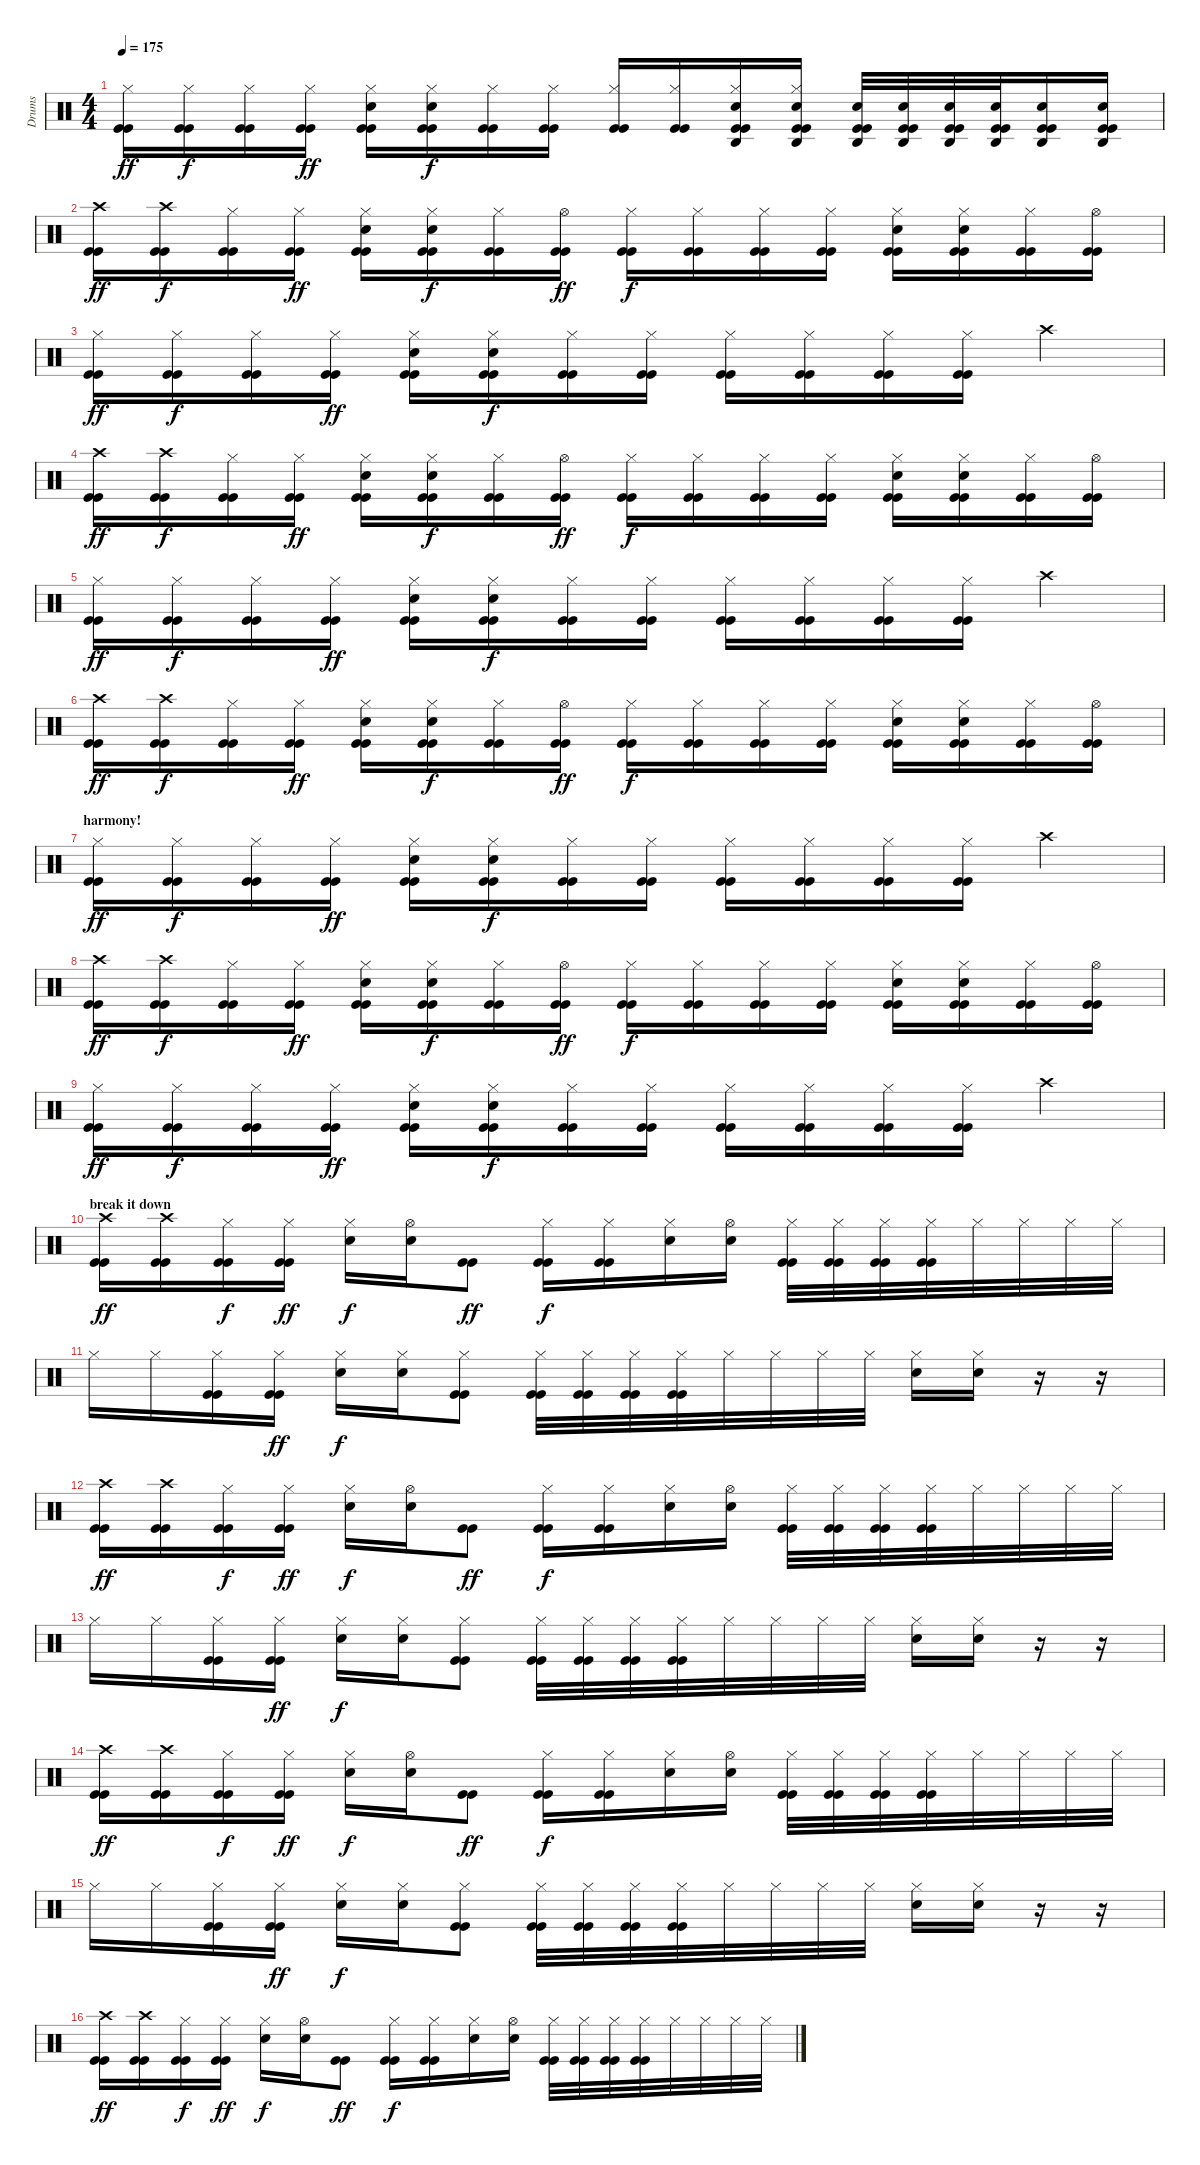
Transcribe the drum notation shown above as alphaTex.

\track ("Drums" "Drums") {instrument percussion}
\staff {score}
\articulation defaults
\ts (4 4)
\tempo 175
\clef neutral
\ks c
("Hi-Hat (closed)" "Kick (hit)" "Kick (hit)").16{dy ff} ("Hi-Hat (closed)" "Kick (hit)" "Kick (hit)").16{dy f} ("Hi-Hat (closed)" "Kick (hit)" "Kick (hit)").16 ("Hi-Hat (closed)" "Kick (hit)" "Kick (hit)").16{dy ff} ("Electric Snare (hit)" "Hi-Hat (closed)" "Kick (hit)" "Kick (hit)").16 ("Electric Snare (hit)" "Hi-Hat (closed)" "Kick (hit)" "Kick (hit)").16{dy f} ("Hi-Hat (closed)" "Kick (hit)" "Kick (hit)").16 ("Hi-Hat (closed)" "Kick (hit)" "Kick (hit)").16 ("Hi-Hat (closed)" "Kick (hit)" "Kick (hit)").16 ("Hi-Hat (closed)" "Kick (hit)" "Kick (hit)").16 ("Agogo high (hit)" "Electric Snare (hit)" "Hi-Hat (closed)" "Kick (hit)" "Kick (hit)").16 ("Agogo high (hit)" "Electric Snare (hit)" "Hi-Hat (closed)" "Kick (hit)" "Kick (hit)").16 ("Agogo high (hit)" "Electric Snare (hit)" "Kick (hit)" "Kick (hit)").32 ("Agogo high (hit)" "Electric Snare (hit)" "Kick (hit)" "Kick (hit)").32 ("Agogo high (hit)" "Electric Snare (hit)" "Kick (hit)" "Kick (hit)").32 ("Agogo high (hit)" "Electric Snare (hit)" "Kick (hit)" "Kick (hit)").32 ("Agogo high (hit)" "Electric Snare (hit)" "Kick (hit)" "Kick (hit)").16 ("Agogo high (hit)" "Electric Snare (hit)" "Kick (hit)" "Kick (hit)").16 |
("Crash high (hit)" "Kick (hit)" "Kick (hit)").16{dy ff} ("Crash high (hit)" "Kick (hit)" "Kick (hit)").16{dy f} ("Hi-Hat (closed)" "Kick (hit)" "Kick (hit)").16 ("Hi-Hat (closed)" "Kick (hit)" "Kick (hit)").16{dy ff} ("Electric Snare (hit)" "Hi-Hat (closed)" "Kick (hit)" "Kick (hit)").16 ("Electric Snare (hit)" "Hi-Hat (closed)" "Kick (hit)" "Kick (hit)").16{dy f} ("Hi-Hat (closed)" "Kick (hit)" "Kick (hit)").16 ("Hi-Hat (open)" "Kick (hit)" "Kick (hit)").16{dy ff} ("Hi-Hat (closed)" "Kick (hit)" "Kick (hit)").16{dy f} ("Hi-Hat (closed)" "Kick (hit)" "Kick (hit)").16 ("Hi-Hat (closed)" "Kick (hit)" "Kick (hit)").16 ("Hi-Hat (closed)" "Kick (hit)" "Kick (hit)").16 ("Electric Snare (hit)" "Hi-Hat (closed)" "Kick (hit)" "Kick (hit)").16 ("Electric Snare (hit)" "Hi-Hat (closed)" "Kick (hit)" "Kick (hit)").16 ("Hi-Hat (closed)" "Kick (hit)" "Kick (hit)").16 ("Hi-Hat (open)" "Kick (hit)" "Kick (hit)").16 |
("Hi-Hat (closed)" "Kick (hit)" "Kick (hit)").16{dy ff} ("Hi-Hat (closed)" "Kick (hit)" "Kick (hit)").16{dy f} ("Hi-Hat (closed)" "Kick (hit)" "Kick (hit)").16 ("Hi-Hat (closed)" "Kick (hit)" "Kick (hit)").16{dy ff} ("Electric Snare (hit)" "Hi-Hat (closed)" "Kick (hit)" "Kick (hit)").16 ("Electric Snare (hit)" "Hi-Hat (closed)" "Kick (hit)" "Kick (hit)").16{dy f} ("Hi-Hat (closed)" "Kick (hit)" "Kick (hit)").16 ("Hi-Hat (closed)" "Kick (hit)" "Kick (hit)").16 ("Hi-Hat (closed)" "Kick (hit)" "Kick (hit)").16 ("Hi-Hat (closed)" "Kick (hit)" "Kick (hit)").16 ("Hi-Hat (closed)" "Kick (hit)" "Kick (hit)").16 ("Hi-Hat (closed)" "Kick (hit)" "Kick (hit)").16 "Crash high (hit)".4 |
("Crash high (hit)" "Kick (hit)" "Kick (hit)").16{dy ff} ("Crash high (hit)" "Kick (hit)" "Kick (hit)").16{dy f} ("Hi-Hat (closed)" "Kick (hit)" "Kick (hit)").16 ("Hi-Hat (closed)" "Kick (hit)" "Kick (hit)").16{dy ff} ("Electric Snare (hit)" "Hi-Hat (closed)" "Kick (hit)" "Kick (hit)").16 ("Electric Snare (hit)" "Hi-Hat (closed)" "Kick (hit)" "Kick (hit)").16{dy f} ("Hi-Hat (closed)" "Kick (hit)" "Kick (hit)").16 ("Hi-Hat (open)" "Kick (hit)" "Kick (hit)").16{dy ff} ("Hi-Hat (closed)" "Kick (hit)" "Kick (hit)").16{dy f} ("Hi-Hat (closed)" "Kick (hit)" "Kick (hit)").16 ("Hi-Hat (closed)" "Kick (hit)" "Kick (hit)").16 ("Hi-Hat (closed)" "Kick (hit)" "Kick (hit)").16 ("Electric Snare (hit)" "Hi-Hat (closed)" "Kick (hit)" "Kick (hit)").16 ("Electric Snare (hit)" "Hi-Hat (closed)" "Kick (hit)" "Kick (hit)").16 ("Hi-Hat (closed)" "Kick (hit)" "Kick (hit)").16 ("Hi-Hat (open)" "Kick (hit)" "Kick (hit)").16 |
("Hi-Hat (closed)" "Kick (hit)" "Kick (hit)").16{dy ff} ("Hi-Hat (closed)" "Kick (hit)" "Kick (hit)").16{dy f} ("Hi-Hat (closed)" "Kick (hit)" "Kick (hit)").16 ("Hi-Hat (closed)" "Kick (hit)" "Kick (hit)").16{dy ff} ("Electric Snare (hit)" "Hi-Hat (closed)" "Kick (hit)" "Kick (hit)").16 ("Electric Snare (hit)" "Hi-Hat (closed)" "Kick (hit)" "Kick (hit)").16{dy f} ("Hi-Hat (closed)" "Kick (hit)" "Kick (hit)").16 ("Hi-Hat (closed)" "Kick (hit)" "Kick (hit)").16 ("Hi-Hat (closed)" "Kick (hit)" "Kick (hit)").16 ("Hi-Hat (closed)" "Kick (hit)" "Kick (hit)").16 ("Hi-Hat (closed)" "Kick (hit)" "Kick (hit)").16 ("Hi-Hat (closed)" "Kick (hit)" "Kick (hit)").16 "Crash high (hit)".4 |
("Crash high (hit)" "Kick (hit)" "Kick (hit)").16{dy ff} ("Crash high (hit)" "Kick (hit)" "Kick (hit)").16{dy f} ("Hi-Hat (closed)" "Kick (hit)" "Kick (hit)").16 ("Hi-Hat (closed)" "Kick (hit)" "Kick (hit)").16{dy ff} ("Electric Snare (hit)" "Hi-Hat (closed)" "Kick (hit)" "Kick (hit)").16 ("Electric Snare (hit)" "Hi-Hat (closed)" "Kick (hit)" "Kick (hit)").16{dy f} ("Hi-Hat (closed)" "Kick (hit)" "Kick (hit)").16 ("Hi-Hat (open)" "Kick (hit)" "Kick (hit)").16{dy ff} ("Hi-Hat (closed)" "Kick (hit)" "Kick (hit)").16{dy f} ("Hi-Hat (closed)" "Kick (hit)" "Kick (hit)").16 ("Hi-Hat (closed)" "Kick (hit)" "Kick (hit)").16 ("Hi-Hat (closed)" "Kick (hit)" "Kick (hit)").16 ("Electric Snare (hit)" "Hi-Hat (closed)" "Kick (hit)" "Kick (hit)").16 ("Electric Snare (hit)" "Hi-Hat (closed)" "Kick (hit)" "Kick (hit)").16 ("Hi-Hat (closed)" "Kick (hit)" "Kick (hit)").16 ("Hi-Hat (open)" "Kick (hit)" "Kick (hit)").16 |
\section ("" "harmony!")
("Hi-Hat (closed)" "Kick (hit)" "Kick (hit)").16{dy ff} ("Hi-Hat (closed)" "Kick (hit)" "Kick (hit)").16{dy f} ("Hi-Hat (closed)" "Kick (hit)" "Kick (hit)").16 ("Hi-Hat (closed)" "Kick (hit)" "Kick (hit)").16{dy ff} ("Electric Snare (hit)" "Hi-Hat (closed)" "Kick (hit)" "Kick (hit)").16 ("Electric Snare (hit)" "Hi-Hat (closed)" "Kick (hit)" "Kick (hit)").16{dy f} ("Hi-Hat (closed)" "Kick (hit)" "Kick (hit)").16 ("Hi-Hat (closed)" "Kick (hit)" "Kick (hit)").16 ("Hi-Hat (closed)" "Kick (hit)" "Kick (hit)").16 ("Hi-Hat (closed)" "Kick (hit)" "Kick (hit)").16 ("Hi-Hat (closed)" "Kick (hit)" "Kick (hit)").16 ("Hi-Hat (closed)" "Kick (hit)" "Kick (hit)").16 "Crash high (hit)".4 |
("Crash high (hit)" "Kick (hit)" "Kick (hit)").16{dy ff} ("Crash high (hit)" "Kick (hit)" "Kick (hit)").16{dy f} ("Hi-Hat (closed)" "Kick (hit)" "Kick (hit)").16 ("Hi-Hat (closed)" "Kick (hit)" "Kick (hit)").16{dy ff} ("Electric Snare (hit)" "Hi-Hat (closed)" "Kick (hit)" "Kick (hit)").16 ("Electric Snare (hit)" "Hi-Hat (closed)" "Kick (hit)" "Kick (hit)").16{dy f} ("Hi-Hat (closed)" "Kick (hit)" "Kick (hit)").16 ("Hi-Hat (open)" "Kick (hit)" "Kick (hit)").16{dy ff} ("Hi-Hat (closed)" "Kick (hit)" "Kick (hit)").16{dy f} ("Hi-Hat (closed)" "Kick (hit)" "Kick (hit)").16 ("Hi-Hat (closed)" "Kick (hit)" "Kick (hit)").16 ("Hi-Hat (closed)" "Kick (hit)" "Kick (hit)").16 ("Electric Snare (hit)" "Hi-Hat (closed)" "Kick (hit)" "Kick (hit)").16 ("Electric Snare (hit)" "Hi-Hat (closed)" "Kick (hit)" "Kick (hit)").16 ("Hi-Hat (closed)" "Kick (hit)" "Kick (hit)").16 ("Hi-Hat (open)" "Kick (hit)" "Kick (hit)").16 |
("Hi-Hat (closed)" "Kick (hit)" "Kick (hit)").16{dy ff} ("Hi-Hat (closed)" "Kick (hit)" "Kick (hit)").16{dy f} ("Hi-Hat (closed)" "Kick (hit)" "Kick (hit)").16 ("Hi-Hat (closed)" "Kick (hit)" "Kick (hit)").16{dy ff} ("Electric Snare (hit)" "Hi-Hat (closed)" "Kick (hit)" "Kick (hit)").16 ("Electric Snare (hit)" "Hi-Hat (closed)" "Kick (hit)" "Kick (hit)").16{dy f} ("Hi-Hat (closed)" "Kick (hit)" "Kick (hit)").16 ("Hi-Hat (closed)" "Kick (hit)" "Kick (hit)").16 ("Hi-Hat (closed)" "Kick (hit)" "Kick (hit)").16 ("Hi-Hat (closed)" "Kick (hit)" "Kick (hit)").16 ("Hi-Hat (closed)" "Kick (hit)" "Kick (hit)").16 ("Hi-Hat (closed)" "Kick (hit)" "Kick (hit)").16 "Crash high (hit)".4 |
\section ("" "break it down")
("Crash high (hit)" "Kick (hit)" "Kick (hit)").16{dy ff} ("Crash high (hit)" "Kick (hit)" "Kick (hit)").16 ("Hi-Hat (closed)" "Kick (hit)" "Kick (hit)").16{dy f} ("Hi-Hat (closed)" "Kick (hit)" "Kick (hit)").16{dy ff} ("Electric Snare (hit)" "Hi-Hat (closed)").16{dy f} ("Electric Snare (hit)" "Hi-Hat (open)").16 ("Kick (hit)" "Kick (hit)").8{dy ff} ("Hi-Hat (closed)" "Kick (hit)" "Kick (hit)").16{dy f} ("Hi-Hat (closed)" "Kick (hit)" "Kick (hit)").16 ("Electric Snare (hit)" "Hi-Hat (closed)").16 ("Electric Snare (hit)" "Hi-Hat (open)").16 ("Hi-Hat (closed)" "Kick (hit)" "Kick (hit)").32 ("Hi-Hat (closed)" "Kick (hit)" "Kick (hit)").32 ("Hi-Hat (closed)" "Kick (hit)" "Kick (hit)").32 ("Hi-Hat (closed)" "Kick (hit)" "Kick (hit)").32 "Hi-Hat (closed)".32 "Hi-Hat (closed)".32 "Hi-Hat (closed)".32 "Hi-Hat (closed)".32 |
"Hi-Hat (closed)".16 "Hi-Hat (closed)".16 ("Hi-Hat (closed)" "Kick (hit)" "Kick (hit)").16 ("Hi-Hat (closed)" "Kick (hit)" "Kick (hit)").16{dy ff} ("Electric Snare (hit)" "Hi-Hat (closed)").16{dy f} ("Electric Snare (hit)" "Hi-Hat (closed)").16 ("Hi-Hat (closed)" "Kick (hit)" "Kick (hit)").8 ("Hi-Hat (closed)" "Kick (hit)" "Kick (hit)").32 ("Hi-Hat (closed)" "Kick (hit)" "Kick (hit)").32 ("Hi-Hat (closed)" "Kick (hit)" "Kick (hit)").32 ("Hi-Hat (closed)" "Kick (hit)" "Kick (hit)").32 "Hi-Hat (closed)".32 "Hi-Hat (closed)".32 "Hi-Hat (closed)".32 "Hi-Hat (closed)".32 ("Electric Snare (hit)" "Hi-Hat (closed)").16 ("Electric Snare (hit)" "Hi-Hat (closed)").16 r.16 r.16 |
("Crash high (hit)" "Kick (hit)" "Kick (hit)").16{dy ff} ("Crash high (hit)" "Kick (hit)" "Kick (hit)").16 ("Hi-Hat (closed)" "Kick (hit)" "Kick (hit)").16{dy f} ("Hi-Hat (closed)" "Kick (hit)" "Kick (hit)").16{dy ff} ("Electric Snare (hit)" "Hi-Hat (closed)").16{dy f} ("Electric Snare (hit)" "Hi-Hat (open)").16 ("Kick (hit)" "Kick (hit)").8{dy ff} ("Hi-Hat (closed)" "Kick (hit)" "Kick (hit)").16{dy f} ("Hi-Hat (closed)" "Kick (hit)" "Kick (hit)").16 ("Electric Snare (hit)" "Hi-Hat (closed)").16 ("Electric Snare (hit)" "Hi-Hat (open)").16 ("Hi-Hat (closed)" "Kick (hit)" "Kick (hit)").32 ("Hi-Hat (closed)" "Kick (hit)" "Kick (hit)").32 ("Hi-Hat (closed)" "Kick (hit)" "Kick (hit)").32 ("Hi-Hat (closed)" "Kick (hit)" "Kick (hit)").32 "Hi-Hat (closed)".32 "Hi-Hat (closed)".32 "Hi-Hat (closed)".32 "Hi-Hat (closed)".32 |
"Hi-Hat (closed)".16 "Hi-Hat (closed)".16 ("Hi-Hat (closed)" "Kick (hit)" "Kick (hit)").16 ("Hi-Hat (closed)" "Kick (hit)" "Kick (hit)").16{dy ff} ("Electric Snare (hit)" "Hi-Hat (closed)").16{dy f} ("Electric Snare (hit)" "Hi-Hat (closed)").16 ("Hi-Hat (closed)" "Kick (hit)" "Kick (hit)").8 ("Hi-Hat (closed)" "Kick (hit)" "Kick (hit)").32 ("Hi-Hat (closed)" "Kick (hit)" "Kick (hit)").32 ("Hi-Hat (closed)" "Kick (hit)" "Kick (hit)").32 ("Hi-Hat (closed)" "Kick (hit)" "Kick (hit)").32 "Hi-Hat (closed)".32 "Hi-Hat (closed)".32 "Hi-Hat (closed)".32 "Hi-Hat (closed)".32 ("Electric Snare (hit)" "Hi-Hat (closed)").16 ("Electric Snare (hit)" "Hi-Hat (closed)").16 r.16 r.16 |
("Crash high (hit)" "Kick (hit)" "Kick (hit)").16{dy ff} ("Crash high (hit)" "Kick (hit)" "Kick (hit)").16 ("Hi-Hat (closed)" "Kick (hit)" "Kick (hit)").16{dy f} ("Hi-Hat (closed)" "Kick (hit)" "Kick (hit)").16{dy ff} ("Electric Snare (hit)" "Hi-Hat (closed)").16{dy f} ("Electric Snare (hit)" "Hi-Hat (open)").16 ("Kick (hit)" "Kick (hit)").8{dy ff} ("Hi-Hat (closed)" "Kick (hit)" "Kick (hit)").16{dy f} ("Hi-Hat (closed)" "Kick (hit)" "Kick (hit)").16 ("Electric Snare (hit)" "Hi-Hat (closed)").16 ("Electric Snare (hit)" "Hi-Hat (open)").16 ("Hi-Hat (closed)" "Kick (hit)" "Kick (hit)").32 ("Hi-Hat (closed)" "Kick (hit)" "Kick (hit)").32 ("Hi-Hat (closed)" "Kick (hit)" "Kick (hit)").32 ("Hi-Hat (closed)" "Kick (hit)" "Kick (hit)").32 "Hi-Hat (closed)".32 "Hi-Hat (closed)".32 "Hi-Hat (closed)".32 "Hi-Hat (closed)".32 |
"Hi-Hat (closed)".16 "Hi-Hat (closed)".16 ("Hi-Hat (closed)" "Kick (hit)" "Kick (hit)").16 ("Hi-Hat (closed)" "Kick (hit)" "Kick (hit)").16{dy ff} ("Electric Snare (hit)" "Hi-Hat (closed)").16{dy f} ("Electric Snare (hit)" "Hi-Hat (closed)").16 ("Hi-Hat (closed)" "Kick (hit)" "Kick (hit)").8 ("Hi-Hat (closed)" "Kick (hit)" "Kick (hit)").32 ("Hi-Hat (closed)" "Kick (hit)" "Kick (hit)").32 ("Hi-Hat (closed)" "Kick (hit)" "Kick (hit)").32 ("Hi-Hat (closed)" "Kick (hit)" "Kick (hit)").32 "Hi-Hat (closed)".32 "Hi-Hat (closed)".32 "Hi-Hat (closed)".32 "Hi-Hat (closed)".32 ("Electric Snare (hit)" "Hi-Hat (closed)").16 ("Electric Snare (hit)" "Hi-Hat (closed)").16 r.16 r.16 |
("Crash high (hit)" "Kick (hit)" "Kick (hit)").16{dy ff} ("Crash high (hit)" "Kick (hit)" "Kick (hit)").16 ("Hi-Hat (closed)" "Kick (hit)" "Kick (hit)").16{dy f} ("Hi-Hat (closed)" "Kick (hit)" "Kick (hit)").16{dy ff} ("Electric Snare (hit)" "Hi-Hat (closed)").16{dy f} ("Electric Snare (hit)" "Hi-Hat (open)").16 ("Kick (hit)" "Kick (hit)").8{dy ff} ("Hi-Hat (closed)" "Kick (hit)" "Kick (hit)").16{dy f} ("Hi-Hat (closed)" "Kick (hit)" "Kick (hit)").16 ("Electric Snare (hit)" "Hi-Hat (closed)").16 ("Electric Snare (hit)" "Hi-Hat (open)").16 ("Hi-Hat (closed)" "Kick (hit)" "Kick (hit)").32 ("Hi-Hat (closed)" "Kick (hit)" "Kick (hit)").32 ("Hi-Hat (closed)" "Kick (hit)" "Kick (hit)").32 ("Hi-Hat (closed)" "Kick (hit)" "Kick (hit)").32 "Hi-Hat (closed)".32 "Hi-Hat (closed)".32 "Hi-Hat (closed)".32 "Hi-Hat (closed)".32
